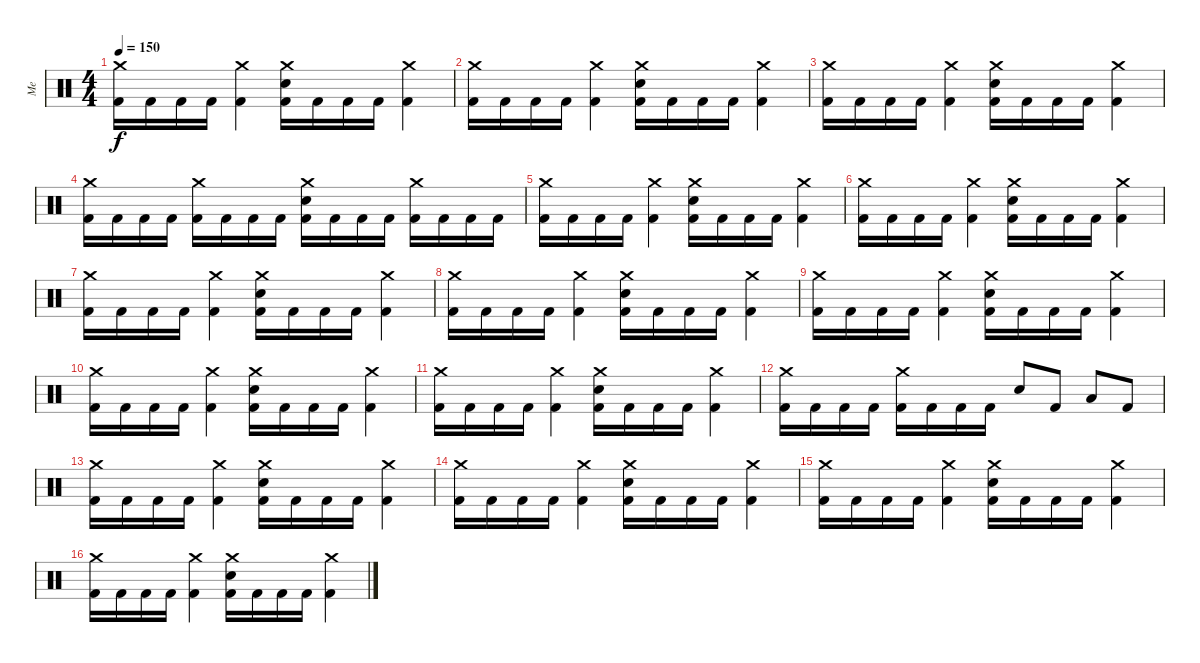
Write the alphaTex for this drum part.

\track ("Me" "Me") {instrument percussion}
\staff {score}
\articulation defaults
\ts (4 4)
\tempo 150
\clef neutral
\ks c
("Crash medium (hit)" "Kick (hit) 2").16{dy f} "Kick (hit) 2".16 "Kick (hit) 2".16 "Kick (hit) 2".16 ("Crash medium (hit)" "Kick (hit) 2").4 ("Crash medium (hit)" "Snare (hit) 2" "Kick (hit) 2").16 "Kick (hit) 2".16 "Kick (hit) 2".16 "Kick (hit) 2".16 ("Crash medium (hit)" "Kick (hit) 2").4 |
("Crash medium (hit)" "Kick (hit) 2").16 "Kick (hit) 2".16 "Kick (hit) 2".16 "Kick (hit) 2".16 ("Crash medium (hit)" "Kick (hit) 2").4 ("Crash medium (hit)" "Snare (hit) 2" "Kick (hit) 2").16 "Kick (hit) 2".16 "Kick (hit) 2".16 "Kick (hit) 2".16 ("Crash medium (hit)" "Kick (hit) 2").4 |
("Crash medium (hit)" "Kick (hit) 2").16 "Kick (hit) 2".16 "Kick (hit) 2".16 "Kick (hit) 2".16 ("Crash medium (hit)" "Kick (hit) 2").4 ("Crash medium (hit)" "Snare (hit) 2" "Kick (hit) 2").16 "Kick (hit) 2".16 "Kick (hit) 2".16 "Kick (hit) 2".16 ("Crash medium (hit)" "Kick (hit) 2").4 |
("Crash medium (hit)" "Kick (hit) 2").16 "Kick (hit) 2".16 "Kick (hit) 2".16 "Kick (hit) 2".16 ("Crash medium (hit)" "Kick (hit) 2").16 "Kick (hit) 2".16 "Kick (hit) 2".16 "Kick (hit) 2".16 ("Crash medium (hit)" "Snare (hit) 2" "Kick (hit) 2").16 "Kick (hit) 2".16 "Kick (hit) 2".16 "Kick (hit) 2".16 ("Crash medium (hit)" "Kick (hit) 2").16 "Kick (hit) 2".16 "Kick (hit) 2".16 "Kick (hit) 2".16 |
("Crash medium (hit)" "Kick (hit) 2").16 "Kick (hit) 2".16 "Kick (hit) 2".16 "Kick (hit) 2".16 ("Crash medium (hit)" "Kick (hit) 2").4 ("Crash medium (hit)" "Snare (hit) 2" "Kick (hit) 2").16 "Kick (hit) 2".16 "Kick (hit) 2".16 "Kick (hit) 2".16 ("Crash medium (hit)" "Kick (hit) 2").4 |
("Crash medium (hit)" "Kick (hit) 2").16 "Kick (hit) 2".16 "Kick (hit) 2".16 "Kick (hit) 2".16 ("Crash medium (hit)" "Kick (hit) 2").4 ("Crash medium (hit)" "Snare (hit) 2" "Kick (hit) 2").16 "Kick (hit) 2".16 "Kick (hit) 2".16 "Kick (hit) 2".16 ("Crash medium (hit)" "Kick (hit) 2").4 |
("Crash medium (hit)" "Kick (hit) 2").16 "Kick (hit) 2".16 "Kick (hit) 2".16 "Kick (hit) 2".16 ("Crash medium (hit)" "Kick (hit) 2").4 ("Crash medium (hit)" "Snare (hit) 2" "Kick (hit) 2").16 "Kick (hit) 2".16 "Kick (hit) 2".16 "Kick (hit) 2".16 ("Crash medium (hit)" "Kick (hit) 2").4 |
("Crash medium (hit)" "Kick (hit) 2").16 "Kick (hit) 2".16 "Kick (hit) 2".16 "Kick (hit) 2".16 ("Crash medium (hit)" "Kick (hit) 2").4 ("Crash medium (hit)" "Snare (hit) 2" "Kick (hit) 2").16 "Kick (hit) 2".16 "Kick (hit) 2".16 "Kick (hit) 2".16 ("Crash medium (hit)" "Kick (hit) 2").4 |
("Crash medium (hit)" "Kick (hit) 2").16 "Kick (hit) 2".16 "Kick (hit) 2".16 "Kick (hit) 2".16 ("Crash medium (hit)" "Kick (hit) 2").4 ("Crash medium (hit)" "Snare (hit) 2" "Kick (hit) 2").16 "Kick (hit) 2".16 "Kick (hit) 2".16 "Kick (hit) 2".16 ("Crash medium (hit)" "Kick (hit) 2").4 |
("Crash medium (hit)" "Kick (hit) 2").16 "Kick (hit) 2".16 "Kick (hit) 2".16 "Kick (hit) 2".16 ("Crash medium (hit)" "Kick (hit) 2").4 ("Crash medium (hit)" "Snare (hit) 2" "Kick (hit) 2").16 "Kick (hit) 2".16 "Kick (hit) 2".16 "Kick (hit) 2".16 ("Crash medium (hit)" "Kick (hit) 2").4 |
("Crash medium (hit)" "Kick (hit) 2").16 "Kick (hit) 2".16 "Kick (hit) 2".16 "Kick (hit) 2".16 ("Crash medium (hit)" "Kick (hit) 2").4 ("Crash medium (hit)" "Snare (hit) 2" "Kick (hit) 2").16 "Kick (hit) 2".16 "Kick (hit) 2".16 "Kick (hit) 2".16 ("Crash medium (hit)" "Kick (hit) 2").4 |
("Crash medium (hit)" "Kick (hit) 2").16 "Kick (hit) 2".16 "Kick (hit) 2".16 "Kick (hit) 2".16 ("Crash medium (hit)" "Kick (hit) 2").16 "Kick (hit) 2".16 "Kick (hit) 2".16 "Kick (hit) 2".16 "Snare (hit) 2".8 "Kick (hit) 2".8 "Low Tom (hit)".8 "Kick (hit) 2".8 |
("Crash medium (hit)" "Kick (hit) 2").16 "Kick (hit) 2".16 "Kick (hit) 2".16 "Kick (hit) 2".16 ("Crash medium (hit)" "Kick (hit) 2").4 ("Crash medium (hit)" "Snare (hit) 2" "Kick (hit) 2").16 "Kick (hit) 2".16 "Kick (hit) 2".16 "Kick (hit) 2".16 ("Crash medium (hit)" "Kick (hit) 2").4 |
("Crash medium (hit)" "Kick (hit) 2").16 "Kick (hit) 2".16 "Kick (hit) 2".16 "Kick (hit) 2".16 ("Crash medium (hit)" "Kick (hit) 2").4 ("Crash medium (hit)" "Snare (hit) 2" "Kick (hit) 2").16 "Kick (hit) 2".16 "Kick (hit) 2".16 "Kick (hit) 2".16 ("Crash medium (hit)" "Kick (hit) 2").4 |
("Crash medium (hit)" "Kick (hit) 2").16 "Kick (hit) 2".16 "Kick (hit) 2".16 "Kick (hit) 2".16 ("Crash medium (hit)" "Kick (hit) 2").4 ("Crash medium (hit)" "Snare (hit) 2" "Kick (hit) 2").16 "Kick (hit) 2".16 "Kick (hit) 2".16 "Kick (hit) 2".16 ("Crash medium (hit)" "Kick (hit) 2").4 |
("Crash medium (hit)" "Kick (hit) 2").16 "Kick (hit) 2".16 "Kick (hit) 2".16 "Kick (hit) 2".16 ("Crash medium (hit)" "Kick (hit) 2").4 ("Crash medium (hit)" "Snare (hit) 2" "Kick (hit) 2").16 "Kick (hit) 2".16 "Kick (hit) 2".16 "Kick (hit) 2".16 ("Crash medium (hit)" "Kick (hit) 2").4
